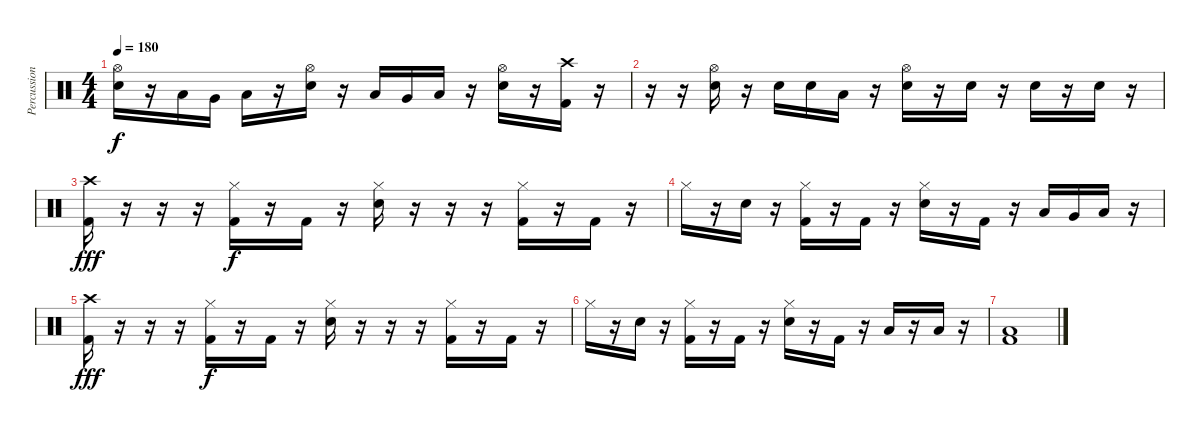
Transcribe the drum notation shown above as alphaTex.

\track ("Percussion" "Percussion") {instrument percussion}
\staff {score}
\articulation defaults
\ts (4 4)
\tempo 180
\clef neutral
\ks c
("Hi-Hat (open)" "Electric Snare (hit)").16{dy f} r.16 "Low Tom (hit)".16 "Very Low Tom (hit)".16 "Low Floor Tom (hit)".16 r.16 ("Hi-Hat (open)" "Electric Snare (hit)").16 r.16 "Low Tom (hit)".16 "Very Low Tom (hit)".16 "Low Floor Tom (hit)".16 r.16 ("Hi-Hat (open)" "Electric Snare (hit)").16 r.16 ("Crash high (hit)" "Kick (hit) 2").16 r.16 |
r.16 r.16 ("Hi-Hat (open)" "Electric Snare (hit)").16 r.16 "Electric Snare (hit)".16 "Electric Snare (hit)".16 "Low Floor Tom (hit)".16 r.16 ("Hi-Hat (open)" "Electric Snare (hit)").16 r.16 "Electric Snare (hit)".16 r.16 "Electric Snare (hit)".16 r.16 "Electric Snare (hit)".16 r.16 |
("Crash high (hit)" "Kick (hit) 2").16{dy fff} r.16 r.16 r.16 ("Hi-Hat (closed)" "Kick (hit) 2").16{dy f} r.16 "Kick (hit) 2".16 r.16 ("Hi-Hat (closed)" "Electric Snare (hit)").16 r.16 r.16 r.16 ("Hi-Hat (closed)" "Kick (hit) 2").16 r.16 "Kick (hit) 2".16 r.16 |
"Hi-Hat (closed)".16 r.16 "Electric Snare (hit)".16 r.16 ("Hi-Hat (closed)" "Kick (hit) 2").16 r.16 "Kick (hit) 2".16 r.16 ("Hi-Hat (closed)" "Electric Snare (hit)").16 r.16 "Kick (hit) 2".16 r.16 "Low Tom (hit)".16 "Very Low Tom (hit)".16 "Low Floor Tom (hit)".16 r.16 |
("Crash high (hit)" "Kick (hit) 2").16{dy fff} r.16 r.16 r.16 ("Hi-Hat (closed)" "Kick (hit) 2").16{dy f} r.16 "Kick (hit) 2".16 r.16 ("Hi-Hat (closed)" "Electric Snare (hit)").16 r.16 r.16 r.16 ("Hi-Hat (closed)" "Kick (hit) 2").16 r.16 "Kick (hit) 2".16 r.16 |
"Hi-Hat (closed)".16 r.16 "Electric Snare (hit)".16 r.16 ("Hi-Hat (closed)" "Kick (hit) 2").16 r.16 "Kick (hit) 2".16 r.16 ("Hi-Hat (closed)" "Electric Snare (hit)").16 r.16 "Kick (hit) 2".16 r.16 "Low Tom (hit)".16 r.16 "Low Tom (hit)".16 r.16 |
("Low Floor Tom (hit)" "Kick (hit) 2").1
